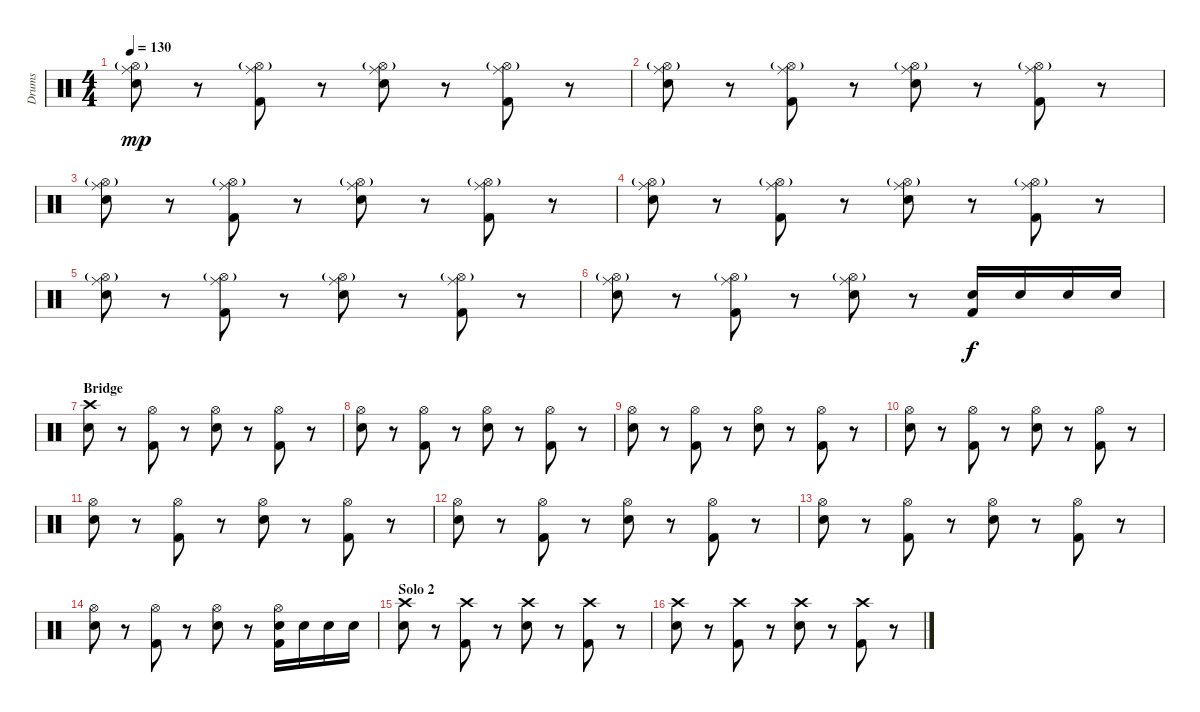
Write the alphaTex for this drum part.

\track ("Drums" "Drums") {instrument percussion}
\staff {score}
\articulation defaults
\ts (4 4)
\tempo 130
\clef neutral
\ks c
("Ride (middle)" "Hi-Hat (open)"{g} "Electric Snare (hit)").8{dy mp} r.8 ("Ride (middle)" "Hi-Hat (open)"{g} "Kick (hit) 2").8 r.8 ("Ride (middle)" "Hi-Hat (open)"{g} "Electric Snare (hit)").8 r.8 ("Ride (middle)" "Hi-Hat (open)"{g} "Kick (hit) 2").8 r.8 |
("Ride (middle)" "Hi-Hat (open)"{g} "Electric Snare (hit)").8 r.8 ("Ride (middle)" "Hi-Hat (open)"{g} "Kick (hit) 2").8 r.8 ("Ride (middle)" "Hi-Hat (open)"{g} "Electric Snare (hit)").8 r.8 ("Ride (middle)" "Hi-Hat (open)"{g} "Kick (hit) 2").8 r.8 |
("Ride (middle)" "Hi-Hat (open)"{g} "Electric Snare (hit)").8 r.8 ("Ride (middle)" "Hi-Hat (open)"{g} "Kick (hit) 2").8 r.8 ("Ride (middle)" "Hi-Hat (open)"{g} "Electric Snare (hit)").8 r.8 ("Ride (middle)" "Hi-Hat (open)"{g} "Kick (hit) 2").8 r.8 |
("Ride (middle)" "Hi-Hat (open)"{g} "Electric Snare (hit)").8 r.8 ("Ride (middle)" "Hi-Hat (open)"{g} "Kick (hit) 2").8 r.8 ("Ride (middle)" "Hi-Hat (open)"{g} "Electric Snare (hit)").8 r.8 ("Ride (middle)" "Hi-Hat (open)"{g} "Kick (hit) 2").8 r.8 |
("Ride (middle)" "Hi-Hat (open)"{g} "Electric Snare (hit)").8 r.8 ("Ride (middle)" "Hi-Hat (open)"{g} "Kick (hit) 2").8 r.8 ("Ride (middle)" "Hi-Hat (open)"{g} "Electric Snare (hit)").8 r.8 ("Ride (middle)" "Hi-Hat (open)"{g} "Kick (hit) 2").8 r.8 |
("Ride (middle)" "Hi-Hat (open)"{g} "Electric Snare (hit)").8 r.8 ("Ride (middle)" "Hi-Hat (open)"{g} "Kick (hit) 2").8 r.8 ("Ride (middle)" "Hi-Hat (open)"{g} "Electric Snare (hit)").8 r.8 ("Electric Snare (hit)" "Kick (hit) 2").16{dy f} "Electric Snare (hit)".16 "Electric Snare (hit)".16 "Electric Snare (hit)".16 |
\section ("" "Bridge")
("Crash high (hit)" "Electric Snare (hit)").8 r.8 ("Hi-Hat (open)" "Kick (hit) 2").8 r.8 ("Hi-Hat (open)" "Electric Snare (hit)").8 r.8 ("Hi-Hat (open)" "Kick (hit) 2").8 r.8 |
("Hi-Hat (open)" "Electric Snare (hit)").8 r.8 ("Hi-Hat (open)" "Kick (hit) 2").8 r.8 ("Hi-Hat (open)" "Electric Snare (hit)").8 r.8 ("Hi-Hat (open)" "Kick (hit) 2").8 r.8 |
("Hi-Hat (open)" "Electric Snare (hit)").8 r.8 ("Hi-Hat (open)" "Kick (hit) 2").8 r.8 ("Hi-Hat (open)" "Electric Snare (hit)").8 r.8 ("Hi-Hat (open)" "Kick (hit) 2").8 r.8 |
("Hi-Hat (open)" "Electric Snare (hit)").8 r.8 ("Hi-Hat (open)" "Kick (hit) 2").8 r.8 ("Hi-Hat (open)" "Electric Snare (hit)").8 r.8 ("Hi-Hat (open)" "Kick (hit) 2").8 r.8 |
("Hi-Hat (open)" "Electric Snare (hit)").8 r.8 ("Hi-Hat (open)" "Kick (hit) 2").8 r.8 ("Hi-Hat (open)" "Electric Snare (hit)").8 r.8 ("Hi-Hat (open)" "Kick (hit) 2").8 r.8 |
("Hi-Hat (open)" "Electric Snare (hit)").8 r.8 ("Hi-Hat (open)" "Kick (hit) 2").8 r.8 ("Hi-Hat (open)" "Electric Snare (hit)").8 r.8 ("Hi-Hat (open)" "Kick (hit) 2").8 r.8 |
("Hi-Hat (open)" "Electric Snare (hit)").8 r.8 ("Hi-Hat (open)" "Kick (hit) 2").8 r.8 ("Hi-Hat (open)" "Electric Snare (hit)").8 r.8 ("Hi-Hat (open)" "Kick (hit) 2").8 r.8 |
("Hi-Hat (open)" "Electric Snare (hit)").8 r.8 ("Hi-Hat (open)" "Kick (hit) 2").8 r.8 ("Hi-Hat (open)" "Electric Snare (hit)").8 r.8 ("Hi-Hat (open)" "Electric Snare (hit)" "Kick (hit) 2").16 "Electric Snare (hit)".16 "Electric Snare (hit)".16 "Electric Snare (hit)".16 |
\section ("" "Solo 2")
("Crash high (hit)" "Electric Snare (hit)").8 r.8 ("Crash high (hit)" "Kick (hit) 2").8 r.8 ("Crash high (hit)" "Electric Snare (hit)").8 r.8 ("Crash high (hit)" "Kick (hit) 2").8 r.8 |
("Crash high (hit)" "Electric Snare (hit)").8 r.8 ("Crash high (hit)" "Kick (hit) 2").8 r.8 ("Crash high (hit)" "Electric Snare (hit)").8 r.8 ("Crash high (hit)" "Kick (hit) 2").8 r.8
